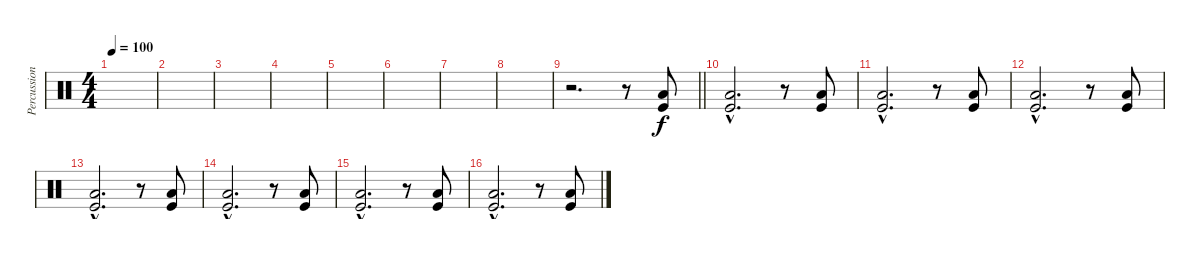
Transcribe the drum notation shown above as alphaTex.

\track ("Percussions" "Percussion") {instrument percussion}
\staff {score}
\articulation defaults
\ts (4 4)
\tempo 100
\clef neutral
\ks c
|
|
|
|
|
|
|
|
\barLineRight lightlight
r.2{d} r.8 ("Low Tom (hit)" "Kick (hit)").8 |
\section ("" "")
("Low Tom (hit)"{hac} "Kick (hit)"{hac}).2{d} r.8 ("Low Tom (hit)" "Kick (hit)").8 |
("Low Tom (hit)"{hac} "Kick (hit)"{hac}).2{d} r.8 ("Low Tom (hit)" "Kick (hit)").8 |
("Low Floor Tom (hit)"{hac} "Kick (hit)"{hac}).2{d} r.8 ("Low Floor Tom (hit)" "Kick (hit)").8 |
("Low Floor Tom (hit)"{hac} "Kick (hit)"{hac}).2{d} r.8 ("Low Floor Tom (hit)" "Kick (hit)").8 |
("Low Floor Tom (hit)"{hac} "Kick (hit)"{hac}).2{d} r.8 ("Low Floor Tom (hit)" "Kick (hit)").8 |
("Low Floor Tom (hit)"{hac} "Kick (hit)"{hac}).2{d} r.8 ("Low Floor Tom (hit)" "Kick (hit)").8 |
("Low Floor Tom (hit)"{hac} "Kick (hit)"{hac}).2{d} r.8 ("Low Floor Tom (hit)" "Kick (hit)").8
